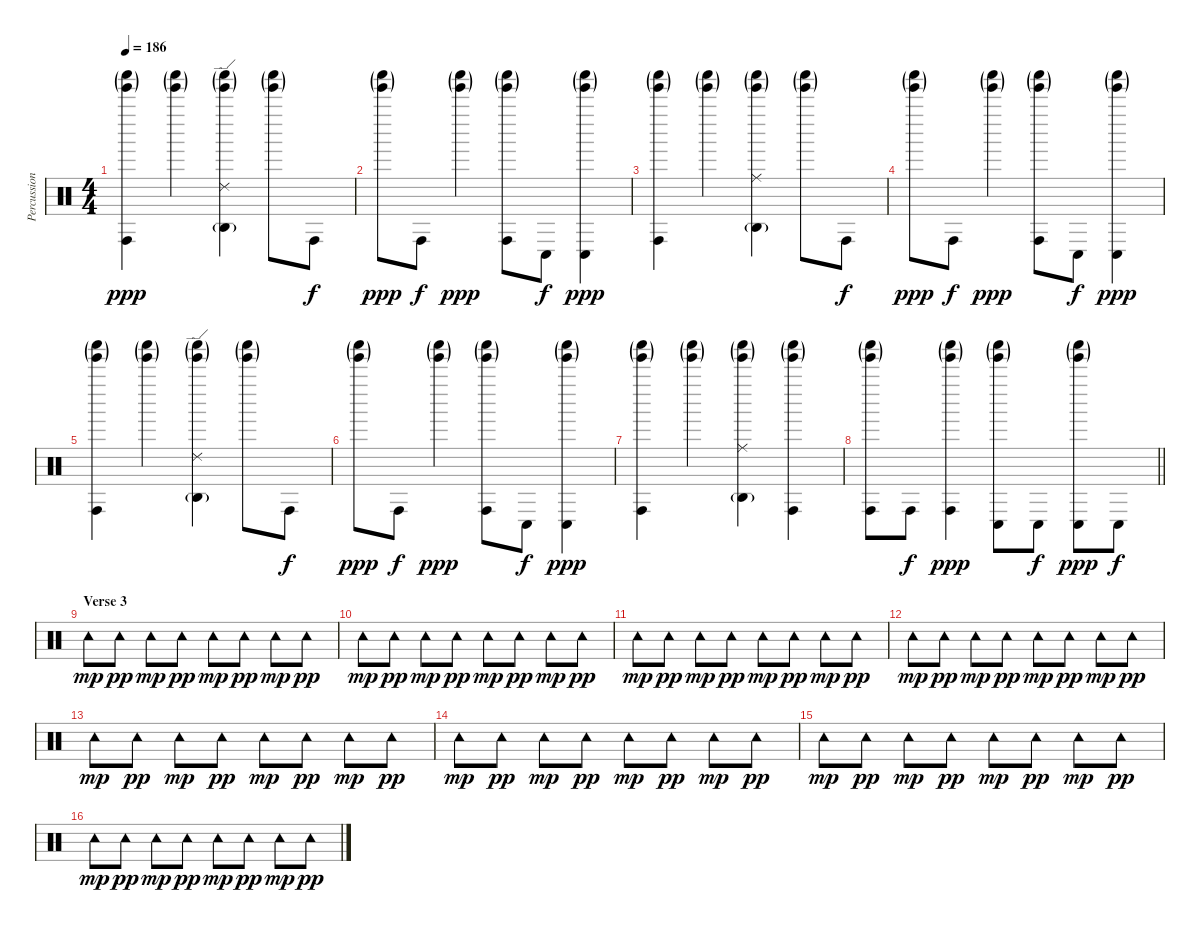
\track ("Percussion" "Percussion") {instrument percussion}
\staff {score}
\articulation defaults
\ts (4 4)
\tempo 186
\clef neutral
\ks c
("Conga high (hit)" "Shaker (hit)"{g} "Tinkle Bell (hit)"{g}).4{dy ppp} ("Shaker (hit)"{g} "Tinkle Bell (hit)"{g}).4 ("Ride (edge) 2" "Agogo high (hit)"{g} "Shaker (hit)"{g} "Tinkle Bell (hit)"{g}).4 ("Shaker (hit)"{g} "Tinkle Bell (hit)"{g}).8 "Conga high (hit)".8{dy f} |
("Shaker (hit)"{g} "Tinkle Bell (hit)"{g}).8{dy ppp} "Conga high (hit)".8{dy f} ("Shaker (hit)"{g} "Tinkle Bell (hit)"{g}).4{dy ppp} ("Conga high (hit)" "Shaker (hit)"{g} "Tinkle Bell (hit)"{g}).8 "Conga low (hit)".8{dy f} ("Conga low (hit)" "Shaker (hit)"{g} "Tinkle Bell (hit)"{g}).4{dy ppp} |
("Conga high (hit)" "Shaker (hit)"{g} "Tinkle Bell (hit)"{g}).4 ("Shaker (hit)"{g} "Tinkle Bell (hit)"{g}).4 ("Ride (middle)" "Agogo high (hit)"{g} "Shaker (hit)"{g} "Tinkle Bell (hit)"{g}).4 ("Shaker (hit)"{g} "Tinkle Bell (hit)"{g}).8 "Conga high (hit)".8{dy f} |
("Shaker (hit)"{g} "Tinkle Bell (hit)"{g}).8{dy ppp} "Conga high (hit)".8{dy f} ("Shaker (hit)"{g} "Tinkle Bell (hit)"{g}).4{dy ppp} ("Conga high (hit)" "Shaker (hit)"{g} "Tinkle Bell (hit)"{g}).8 "Conga low (hit)".8{dy f} ("Conga low (hit)" "Shaker (hit)"{g} "Tinkle Bell (hit)"{g}).4{dy ppp} |
("Conga high (hit)" "Shaker (hit)"{g} "Tinkle Bell (hit)"{g}).4 ("Shaker (hit)"{g} "Tinkle Bell (hit)"{g}).4 ("Ride (edge) 2" "Agogo high (hit)"{g} "Shaker (hit)"{g} "Tinkle Bell (hit)"{g}).4 ("Shaker (hit)"{g} "Tinkle Bell (hit)"{g}).8 "Conga high (hit)".8{dy f} |
("Shaker (hit)"{g} "Tinkle Bell (hit)"{g}).8{dy ppp} "Conga high (hit)".8{dy f} ("Shaker (hit)"{g} "Tinkle Bell (hit)"{g}).4{dy ppp} ("Conga high (hit)" "Shaker (hit)"{g} "Tinkle Bell (hit)"{g}).8 "Conga low (hit)".8{dy f} ("Conga low (hit)" "Shaker (hit)"{g} "Tinkle Bell (hit)"{g}).4{dy ppp} |
("Conga high (hit)" "Shaker (hit)"{g} "Tinkle Bell (hit)"{g}).4 ("Shaker (hit)"{g} "Tinkle Bell (hit)"{g}).4 ("Ride (middle)" "Agogo high (hit)"{g} "Shaker (hit)"{g} "Tinkle Bell (hit)"{g}).4 ("Conga high (hit)" "Shaker (hit)"{g} "Tinkle Bell (hit)"{g}).4 |
\barLineRight lightlight
("Conga high (hit)" "Shaker (hit)"{g} "Tinkle Bell (hit)"{g}).8 "Conga high (hit)".8{dy f} ("Conga high (hit)" "Shaker (hit)"{g} "Tinkle Bell (hit)"{g}).4{dy ppp} ("Conga low (hit)" "Shaker (hit)"{g} "Tinkle Bell (hit)"{g}).8 "Conga low (hit)".8{dy f} ("Conga low (hit)" "Shaker (hit)"{g} "Tinkle Bell (hit)"{g}).8{dy ppp} "Conga low (hit)".8{dy f} |
\section ("" "Verse 3")
"Tambourine (hit)".8{dy mp} "Tambourine (hit)".8{dy pp} "Tambourine (hit)".8{dy mp} "Tambourine (hit)".8{dy pp} "Tambourine (hit)".8{dy mp} "Tambourine (hit)".8{dy pp} "Tambourine (hit)".8{dy mp} "Tambourine (hit)".8{dy pp} |
"Tambourine (hit)".8{dy mp} "Tambourine (hit)".8{dy pp} "Tambourine (hit)".8{dy mp} "Tambourine (hit)".8{dy pp} "Tambourine (hit)".8{dy mp} "Tambourine (hit)".8{dy pp} "Tambourine (hit)".8{dy mp} "Tambourine (hit)".8{dy pp} |
"Tambourine (hit)".8{dy mp} "Tambourine (hit)".8{dy pp} "Tambourine (hit)".8{dy mp} "Tambourine (hit)".8{dy pp} "Tambourine (hit)".8{dy mp} "Tambourine (hit)".8{dy pp} "Tambourine (hit)".8{dy mp} "Tambourine (hit)".8{dy pp} |
"Tambourine (hit)".8{dy mp} "Tambourine (hit)".8{dy pp} "Tambourine (hit)".8{dy mp} "Tambourine (hit)".8{dy pp} "Tambourine (hit)".8{dy mp} "Tambourine (hit)".8{dy pp} "Tambourine (hit)".8{dy mp} "Tambourine (hit)".8{dy pp} |
"Tambourine (hit)".8{dy mp} "Tambourine (hit)".8{dy pp} "Tambourine (hit)".8{dy mp} "Tambourine (hit)".8{dy pp} "Tambourine (hit)".8{dy mp} "Tambourine (hit)".8{dy pp} "Tambourine (hit)".8{dy mp} "Tambourine (hit)".8{dy pp} |
"Tambourine (hit)".8{dy mp} "Tambourine (hit)".8{dy pp} "Tambourine (hit)".8{dy mp} "Tambourine (hit)".8{dy pp} "Tambourine (hit)".8{dy mp} "Tambourine (hit)".8{dy pp} "Tambourine (hit)".8{dy mp} "Tambourine (hit)".8{dy pp} |
"Tambourine (hit)".8{dy mp} "Tambourine (hit)".8{dy pp} "Tambourine (hit)".8{dy mp} "Tambourine (hit)".8{dy pp} "Tambourine (hit)".8{dy mp} "Tambourine (hit)".8{dy pp} "Tambourine (hit)".8{dy mp} "Tambourine (hit)".8{dy pp} |
"Tambourine (hit)".8{dy mp} "Tambourine (hit)".8{dy pp} "Tambourine (hit)".8{dy mp} "Tambourine (hit)".8{dy pp} "Tambourine (hit)".8{dy mp} "Tambourine (hit)".8{dy pp} "Tambourine (hit)".8{dy mp} "Tambourine (hit)".8{dy pp}
